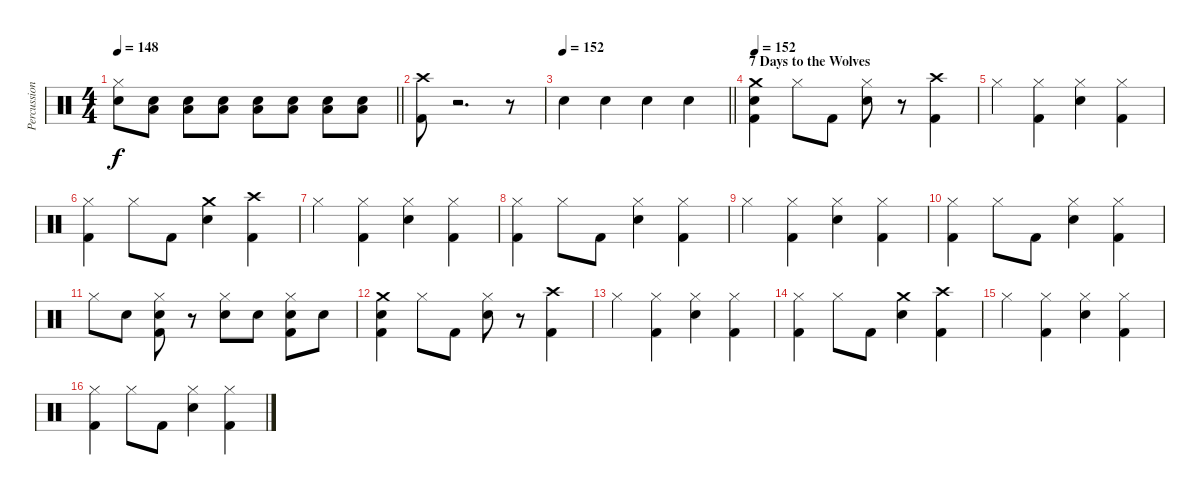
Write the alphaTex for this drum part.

\track ("Percussion" "Percussion") {instrument percussion}
\staff {score}
\articulation defaults
\ts (4 4)
\tempo 148
\clef neutral
\barLineRight lightlight
\ks c
("Hi-Hat (closed)" "Electric Snare (hit)").8{dy f} ("Low Floor Tom (hit)" "Electric Snare (hit)").8 ("Low Floor Tom (hit)" "Electric Snare (hit)").8 ("Low Floor Tom (hit)" "Electric Snare (hit)").8 ("Low Floor Tom (hit)" "Electric Snare (hit)").8 ("Low Floor Tom (hit)" "Electric Snare (hit)").8 ("Low Floor Tom (hit)" "Electric Snare (hit)").8 ("Low Floor Tom (hit)" "Electric Snare (hit)").8 |
("Crash high (hit)" "Kick (hit) 2").8 r.2{d} r.8 |
\tempo 152
\barLineRight lightlight "Electric Snare (hit)".4 "Electric Snare (hit)".4 "Electric Snare (hit)".4 "Electric Snare (hit)".4
|
\section ("" "7 Days to the Wolves")
\tempo 152
("Crash medium (hit)" "Electric Snare (hit)" "Kick (hit) 2").4 "Hi-Hat (closed)".8 "Kick (hit) 2".8 ("Hi-Hat (closed)" "Electric Snare (hit)").8 r.8 ("Crash high (hit)" "Kick (hit) 2").4 |
"Hi-Hat (closed)".4 ("Hi-Hat (closed)" "Kick (hit) 2").4 ("Hi-Hat (closed)" "Electric Snare (hit)").4 ("Hi-Hat (closed)" "Kick (hit) 2").4 |
("Hi-Hat (closed)" "Kick (hit) 2").4 "Hi-Hat (closed)".8 "Kick (hit) 2".8 ("Crash medium (hit)" "Electric Snare (hit)").4 ("Crash high (hit)" "Kick (hit) 2").4 |
"Hi-Hat (closed)".4 ("Hi-Hat (closed)" "Kick (hit) 2").4 ("Hi-Hat (closed)" "Electric Snare (hit)").4 ("Hi-Hat (closed)" "Kick (hit) 2").4 |
("Hi-Hat (closed)" "Kick (hit) 2").4 "Hi-Hat (closed)".8 "Kick (hit) 2".8 ("Hi-Hat (closed)" "Electric Snare (hit)").4 ("Hi-Hat (closed)" "Kick (hit) 2").4 |
"Hi-Hat (closed)".4 ("Hi-Hat (closed)" "Kick (hit) 2").4 ("Hi-Hat (closed)" "Electric Snare (hit)").4 ("Hi-Hat (closed)" "Kick (hit) 2").4 |
("Hi-Hat (closed)" "Kick (hit) 2").4 "Hi-Hat (closed)".8 "Kick (hit) 2".8 ("Hi-Hat (closed)" "Electric Snare (hit)").4 ("Hi-Hat (closed)" "Kick (hit) 2").4 |
"Hi-Hat (closed)".8 "Electric Snare (hit)".8 ("Hi-Hat (closed)" "Electric Snare (hit)" "Kick (hit) 2").8 r.8 ("Hi-Hat (closed)" "Electric Snare (hit)").8 "Electric Snare (hit)".8 ("Hi-Hat (closed)" "Electric Snare (hit)" "Kick (hit) 2").8 "Electric Snare (hit)".8 |
("Crash medium (hit)" "Electric Snare (hit)" "Kick (hit) 2").4 "Hi-Hat (closed)".8 "Kick (hit) 2".8 ("Hi-Hat (closed)" "Electric Snare (hit)").8 r.8 ("Crash high (hit)" "Kick (hit) 2").4 |
"Hi-Hat (closed)".4 ("Hi-Hat (closed)" "Kick (hit) 2").4 ("Hi-Hat (closed)" "Electric Snare (hit)").4 ("Hi-Hat (closed)" "Kick (hit) 2").4 |
("Hi-Hat (closed)" "Kick (hit) 2").4 "Hi-Hat (closed)".8 "Kick (hit) 2".8 ("Crash medium (hit)" "Electric Snare (hit)").4 ("Crash high (hit)" "Kick (hit) 2").4 |
"Hi-Hat (closed)".4 ("Hi-Hat (closed)" "Kick (hit) 2").4 ("Hi-Hat (closed)" "Electric Snare (hit)").4 ("Hi-Hat (closed)" "Kick (hit) 2").4 |
("Hi-Hat (closed)" "Kick (hit) 2").4 "Hi-Hat (closed)".8 "Kick (hit) 2".8 ("Hi-Hat (closed)" "Electric Snare (hit)").4 ("Hi-Hat (closed)" "Kick (hit) 2").4
